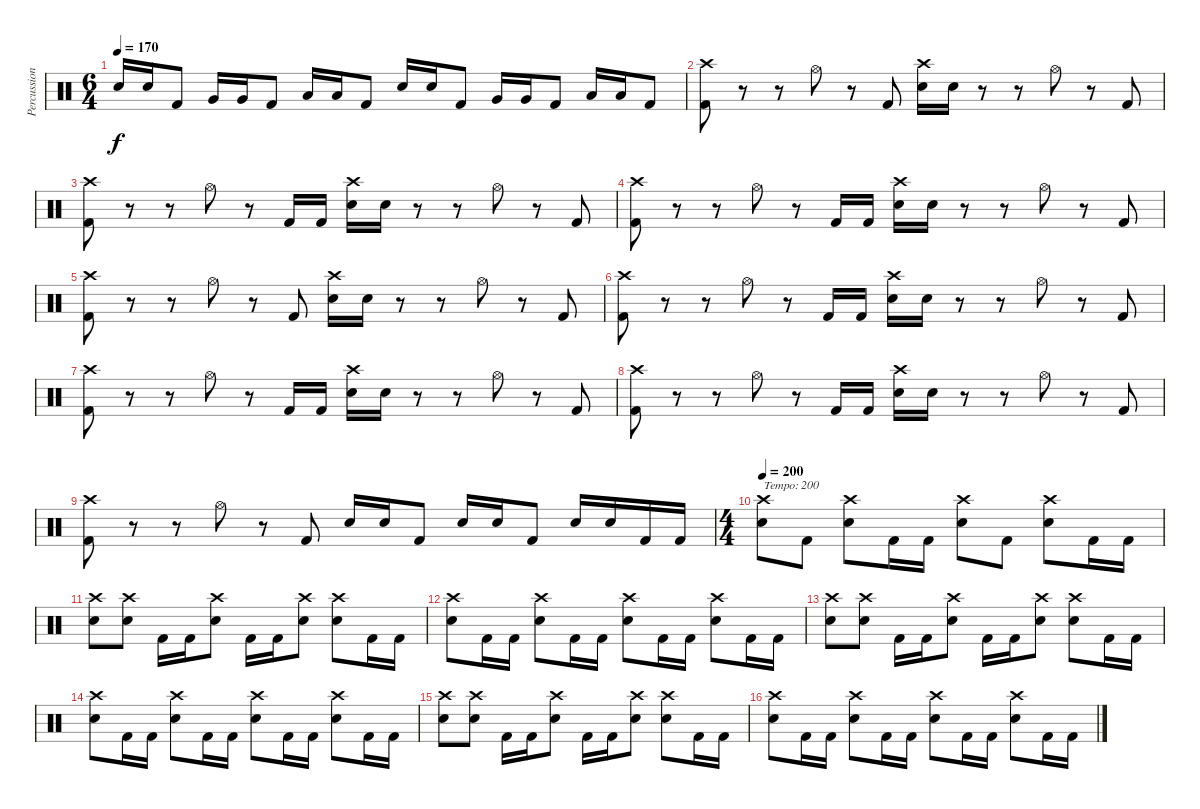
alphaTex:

\track ("Percussion" "Percussion") {instrument percussion}
\staff {score}
\articulation defaults
\ts (6 4)
\tempo 170
\clef neutral
\ks c "Electric Snare (hit)".16{dy f} "Electric Snare (hit)".16 "Kick (hit) 2".8 "Very Low Tom (hit)".16 "Very Low Tom (hit)".16 "Kick (hit) 2".8 "Low Floor Tom (hit)".16 "Low Floor Tom (hit)".16 "Kick (hit) 2".8 "Electric Snare (hit)".16 "Electric Snare (hit)".16 "Kick (hit) 2".8 "Very Low Tom (hit)".16 "Very Low Tom (hit)".16 "Kick (hit) 2".8 "Low Floor Tom (hit)".16 "Low Floor Tom (hit)".16 "Kick (hit) 2".8
|
("Crash high (hit)" "Kick (hit) 2").8 r.8 r.8 "Hi-Hat (open)".8 r.8 "Kick (hit) 2".8 ("Crash high (hit)" "Electric Snare (hit)").16 "Electric Snare (hit)".16 r.8 r.8 "Hi-Hat (open)".8 r.8 "Kick (hit) 2".8 |
("Crash high (hit)" "Kick (hit) 2").8 r.8 r.8 "Hi-Hat (open)".8 r.8 "Kick (hit) 2".16 "Kick (hit) 2".16 ("Crash high (hit)" "Electric Snare (hit)").16 "Electric Snare (hit)".16 r.8 r.8 "Hi-Hat (open)".8 r.8 "Kick (hit) 2".8 |
("Crash high (hit)" "Kick (hit) 2").8 r.8 r.8 "Hi-Hat (open)".8 r.8 "Kick (hit) 2".16 "Kick (hit) 2".16 ("Crash high (hit)" "Electric Snare (hit)").16 "Electric Snare (hit)".16 r.8 r.8 "Hi-Hat (open)".8 r.8 "Kick (hit) 2".8 |
("Crash high (hit)" "Kick (hit) 2").8 r.8 r.8 "Hi-Hat (open)".8 r.8 "Kick (hit) 2".8 ("Crash high (hit)" "Electric Snare (hit)").16 "Electric Snare (hit)".16 r.8 r.8 "Hi-Hat (open)".8 r.8 "Kick (hit) 2".8 |
("Crash high (hit)" "Kick (hit) 2").8 r.8 r.8 "Hi-Hat (open)".8 r.8 "Kick (hit) 2".16 "Kick (hit) 2".16 ("Crash high (hit)" "Electric Snare (hit)").16 "Electric Snare (hit)".16 r.8 r.8 "Hi-Hat (open)".8 r.8 "Kick (hit) 2".8 |
("Crash high (hit)" "Kick (hit) 2").8 r.8 r.8 "Hi-Hat (open)".8 r.8 "Kick (hit) 2".16 "Kick (hit) 2".16 ("Crash high (hit)" "Electric Snare (hit)").16 "Electric Snare (hit)".16 r.8 r.8 "Hi-Hat (open)".8 r.8 "Kick (hit) 2".8 |
("Crash high (hit)" "Kick (hit) 2").8 r.8 r.8 "Hi-Hat (open)".8 r.8 "Kick (hit) 2".16 "Kick (hit) 2".16 ("Crash high (hit)" "Electric Snare (hit)").16 "Electric Snare (hit)".16 r.8 r.8 "Hi-Hat (open)".8 r.8 "Kick (hit) 2".8 |
("Crash high (hit)" "Kick (hit) 2").8 r.8 r.8 "Hi-Hat (open)".8 r.8 "Kick (hit) 2".8 "Electric Snare (hit)".16 "Electric Snare (hit)".16 "Kick (hit) 2".8 "Electric Snare (hit)".16 "Electric Snare (hit)".16 "Kick (hit) 2".8 "Electric Snare (hit)".16 "Electric Snare (hit)".16 "Kick (hit) 2".16 "Kick (hit) 2".16 |
\ts (4 4)
\tempo 200
("Crash high (hit)" "Electric Snare (hit)").8{txt "Tempo: 200"} "Kick (hit) 2".8 ("Crash high (hit)" "Electric Snare (hit)").8 "Kick (hit) 2".16 "Kick (hit) 2".16 ("Crash high (hit)" "Electric Snare (hit)").8 "Kick (hit) 2".8 ("Crash high (hit)" "Electric Snare (hit)").8 "Kick (hit) 2".16 "Kick (hit) 2".16 |
("Crash high (hit)" "Electric Snare (hit)").8 ("Crash high (hit)" "Electric Snare (hit)").8 "Kick (hit) 2".16 "Kick (hit) 2".16 ("Crash high (hit)" "Electric Snare (hit)").8 "Kick (hit) 2".16 "Kick (hit) 2".16 ("Crash high (hit)" "Electric Snare (hit)").8 ("Crash high (hit)" "Electric Snare (hit)").8 "Kick (hit) 2".16 "Kick (hit) 2".16 |
("Crash high (hit)" "Electric Snare (hit)").8 "Kick (hit) 2".16 "Kick (hit) 2".16 ("Crash high (hit)" "Electric Snare (hit)").8 "Kick (hit) 2".16 "Kick (hit) 2".16 ("Crash high (hit)" "Electric Snare (hit)").8 "Kick (hit) 2".16 "Kick (hit) 2".16 ("Crash high (hit)" "Electric Snare (hit)").8 "Kick (hit) 2".16 "Kick (hit) 2".16 |
("Crash high (hit)" "Electric Snare (hit)").8 ("Crash high (hit)" "Electric Snare (hit)").8 "Kick (hit) 2".16 "Kick (hit) 2".16 ("Crash high (hit)" "Electric Snare (hit)").8 "Kick (hit) 2".16 "Kick (hit) 2".16 ("Crash high (hit)" "Electric Snare (hit)").8 ("Crash high (hit)" "Electric Snare (hit)").8 "Kick (hit) 2".16 "Kick (hit) 2".16 |
("Crash high (hit)" "Electric Snare (hit)").8 "Kick (hit) 2".16 "Kick (hit) 2".16 ("Crash high (hit)" "Electric Snare (hit)").8 "Kick (hit) 2".16 "Kick (hit) 2".16 ("Crash high (hit)" "Electric Snare (hit)").8 "Kick (hit) 2".16 "Kick (hit) 2".16 ("Crash high (hit)" "Electric Snare (hit)").8 "Kick (hit) 2".16 "Kick (hit) 2".16 |
("Crash high (hit)" "Electric Snare (hit)").8 ("Crash high (hit)" "Electric Snare (hit)").8 "Kick (hit) 2".16 "Kick (hit) 2".16 ("Crash high (hit)" "Electric Snare (hit)").8 "Kick (hit) 2".16 "Kick (hit) 2".16 ("Crash high (hit)" "Electric Snare (hit)").8 ("Crash high (hit)" "Electric Snare (hit)").8 "Kick (hit) 2".16 "Kick (hit) 2".16 |
("Crash high (hit)" "Electric Snare (hit)").8 "Kick (hit) 2".16 "Kick (hit) 2".16 ("Crash high (hit)" "Electric Snare (hit)").8 "Kick (hit) 2".16 "Kick (hit) 2".16 ("Crash high (hit)" "Electric Snare (hit)").8 "Kick (hit) 2".16 "Kick (hit) 2".16 ("Crash high (hit)" "Electric Snare (hit)").8 "Kick (hit) 2".16 "Kick (hit) 2".16
